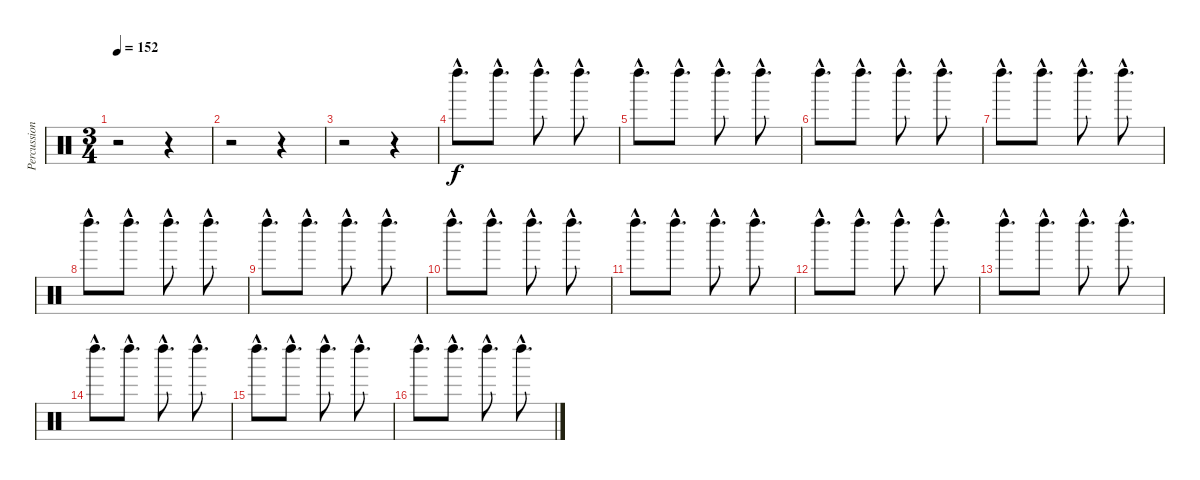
\track ("Percussion" "Percussion") {instrument percussion}
\staff {score}
\articulation defaults
\ts (3 4)
\tempo 152
\clef neutral
\ks c
r.2{dy f} r.4 |
r.2 r.4 |
r.2 r.4 |
"Left Maraca (hit)"{hac}.8{d} "Left Maraca (hit)"{hac}.8{d} "Left Maraca (hit)"{hac}.8{d} "Left Maraca (hit)"{hac}.8{d} |
"Left Maraca (hit)"{hac}.8{d} "Left Maraca (hit)"{hac}.8{d} "Left Maraca (hit)"{hac}.8{d} "Left Maraca (hit)"{hac}.8{d} |
"Left Maraca (hit)"{hac}.8{d} "Left Maraca (hit)"{hac}.8{d} "Left Maraca (hit)"{hac}.8{d} "Left Maraca (hit)"{hac}.8{d} |
"Left Maraca (hit)"{hac}.8{d} "Left Maraca (hit)"{hac}.8{d} "Left Maraca (hit)"{hac}.8{d} "Left Maraca (hit)"{hac}.8{d} |
"Left Maraca (hit)"{hac}.8{d} "Left Maraca (hit)"{hac}.8{d} "Left Maraca (hit)"{hac}.8{d} "Left Maraca (hit)"{hac}.8{d} |
"Left Maraca (hit)"{hac}.8{d} "Left Maraca (hit)"{hac}.8{d} "Left Maraca (hit)"{hac}.8{d} "Left Maraca (hit)"{hac}.8{d} |
"Left Maraca (hit)"{hac}.8{d} "Left Maraca (hit)"{hac}.8{d} "Left Maraca (hit)"{hac}.8{d} "Left Maraca (hit)"{hac}.8{d} |
"Left Maraca (hit)"{hac}.8{d} "Left Maraca (hit)"{hac}.8{d} "Left Maraca (hit)"{hac}.8{d} "Left Maraca (hit)"{hac}.8{d} |
"Left Maraca (hit)"{hac}.8{d} "Left Maraca (hit)"{hac}.8{d} "Left Maraca (hit)"{hac}.8{d} "Left Maraca (hit)"{hac}.8{d} |
"Left Maraca (hit)"{hac}.8{d} "Left Maraca (hit)"{hac}.8{d} "Left Maraca (hit)"{hac}.8{d} "Left Maraca (hit)"{hac}.8{d} |
"Left Maraca (hit)"{hac}.8{d} "Left Maraca (hit)"{hac}.8{d} "Left Maraca (hit)"{hac}.8{d} "Left Maraca (hit)"{hac}.8{d} |
"Left Maraca (hit)"{hac}.8{d} "Left Maraca (hit)"{hac}.8{d} "Left Maraca (hit)"{hac}.8{d} "Left Maraca (hit)"{hac}.8{d} |
"Left Maraca (hit)"{hac}.8{d} "Left Maraca (hit)"{hac}.8{d} "Left Maraca (hit)"{hac}.8{d} "Left Maraca (hit)"{hac}.8{d}
